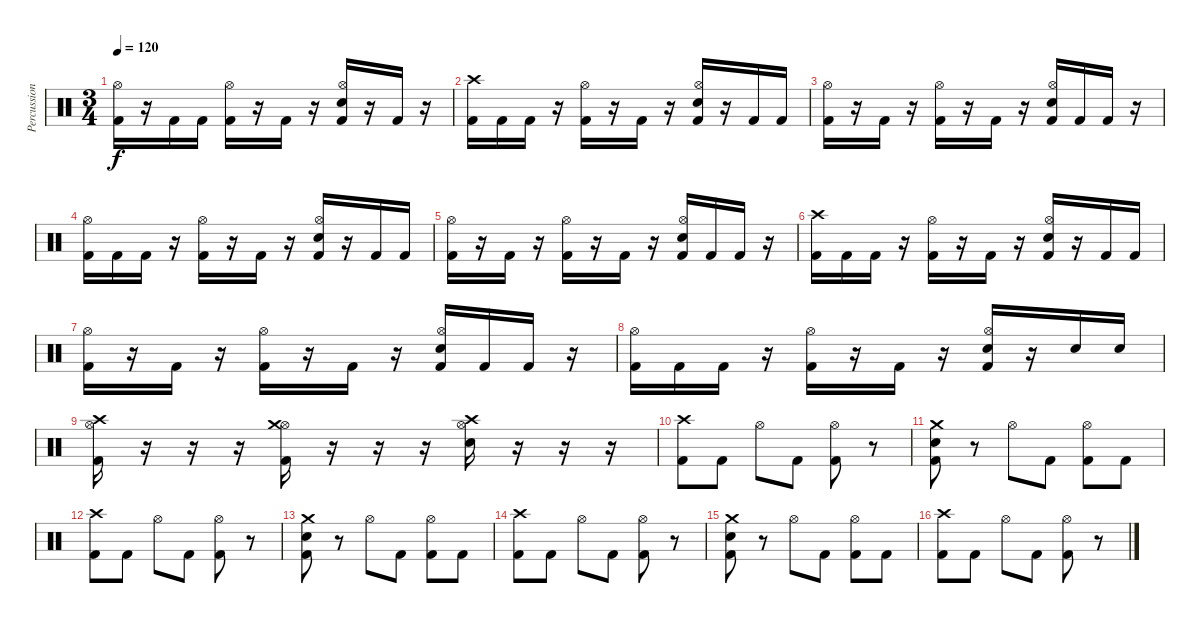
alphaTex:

\track ("Percussion" "Percussion") {instrument percussion}
\staff {score}
\articulation defaults
\ts (3 4)
\tempo 120
\clef neutral
\ks c
("Kick (hit) 2" "Hi-Hat (open)").16{dy f} r.16 "Kick (hit) 2".16 "Kick (hit) 2".16 ("Kick (hit) 2" "Hi-Hat (open)").16 r.16 "Kick (hit) 2".16 r.16 ("Kick (hit) 2" "Electric Snare (hit)" "Hi-Hat (open)").16 r.16 "Kick (hit) 2".16 r.16 |
("Kick (hit) 2" "Crash high (hit)").16 "Kick (hit) 2".16 "Kick (hit) 2".16 r.16 ("Kick (hit) 2" "Hi-Hat (open)").16 r.16 "Kick (hit) 2".16 r.16 ("Kick (hit) 2" "Electric Snare (hit)" "Hi-Hat (open)").16 r.16 "Kick (hit) 2".16 "Kick (hit) 2".16 |
("Kick (hit) 2" "Hi-Hat (open)").16 r.16 "Kick (hit) 2".16 r.16 ("Kick (hit) 2" "Hi-Hat (open)").16 r.16 "Kick (hit) 2".16 r.16 ("Kick (hit) 2" "Electric Snare (hit)" "Hi-Hat (open)").16 "Kick (hit) 2".16 "Kick (hit) 2".16 r.16 |
("Kick (hit) 2" "Hi-Hat (open)").16 "Kick (hit) 2".16 "Kick (hit) 2".16 r.16 ("Kick (hit) 2" "Hi-Hat (open)").16 r.16 "Kick (hit) 2".16 r.16 ("Kick (hit) 2" "Electric Snare (hit)" "Hi-Hat (open)").16 r.16 "Kick (hit) 2".16 "Kick (hit) 2".16 |
("Kick (hit) 2" "Hi-Hat (open)").16 r.16 "Kick (hit) 2".16 r.16 ("Kick (hit) 2" "Hi-Hat (open)").16 r.16 "Kick (hit) 2".16 r.16 ("Kick (hit) 2" "Electric Snare (hit)" "Hi-Hat (open)").16 "Kick (hit) 2".16 "Kick (hit) 2".16 r.16 |
("Kick (hit) 2" "Crash high (hit)").16 "Kick (hit) 2".16 "Kick (hit) 2".16 r.16 ("Kick (hit) 2" "Hi-Hat (open)").16 r.16 "Kick (hit) 2".16 r.16 ("Kick (hit) 2" "Electric Snare (hit)" "Hi-Hat (open)").16 r.16 "Kick (hit) 2".16 "Kick (hit) 2".16 |
("Kick (hit) 2" "Hi-Hat (open)").16 r.16 "Kick (hit) 2".16 r.16 ("Kick (hit) 2" "Hi-Hat (open)").16 r.16 "Kick (hit) 2".16 r.16 ("Kick (hit) 2" "Electric Snare (hit)" "Hi-Hat (open)").16 "Kick (hit) 2".16 "Kick (hit) 2".16 r.16 |
("Kick (hit) 2" "Hi-Hat (open)").16 "Kick (hit) 2".16 "Kick (hit) 2".16 r.16 ("Kick (hit) 2" "Hi-Hat (open)").16 r.16 "Kick (hit) 2".16 r.16 ("Kick (hit) 2" "Electric Snare (hit)" "Hi-Hat (open)").16 r.16 "Electric Snare (hit)".16 "Electric Snare (hit)".16 |
("Kick (hit) 2" "Hi-Hat (open)" "Crash high (hit)").16 r.16 r.16 r.16 ("Kick (hit) 2" "Hi-Hat (open)" "Crash medium (hit)").16 r.16 r.16 r.16 ("Electric Snare (hit)" "Hi-Hat (open)" "Crash high (hit)").16 r.16 r.16 r.16 |
("Kick (hit) 2" "Crash high (hit)").8 "Kick (hit) 2".8 "Hi-Hat (open)".8 "Kick (hit) 2".8 ("Kick (hit) 2" "Hi-Hat (open)").8 r.8 |
("Kick (hit) 2" "Electric Snare (hit)" "Crash medium (hit)").8 r.8 "Hi-Hat (open)".8 "Kick (hit) 2".8 ("Kick (hit) 2" "Hi-Hat (open)").8 "Kick (hit) 2".8 |
("Kick (hit) 2" "Crash high (hit)").8 "Kick (hit) 2".8 "Hi-Hat (open)".8 "Kick (hit) 2".8 ("Kick (hit) 2" "Hi-Hat (open)").8 r.8 |
("Kick (hit) 2" "Electric Snare (hit)" "Crash medium (hit)").8 r.8 "Hi-Hat (open)".8 "Kick (hit) 2".8 ("Kick (hit) 2" "Hi-Hat (open)").8 "Kick (hit) 2".8 |
("Kick (hit) 2" "Crash high (hit)").8 "Kick (hit) 2".8 "Hi-Hat (open)".8 "Kick (hit) 2".8 ("Kick (hit) 2" "Hi-Hat (open)").8 r.8 |
("Kick (hit) 2" "Electric Snare (hit)" "Crash medium (hit)").8 r.8 "Hi-Hat (open)".8 "Kick (hit) 2".8 ("Kick (hit) 2" "Hi-Hat (open)").8 "Kick (hit) 2".8 |
("Kick (hit) 2" "Crash high (hit)").8 "Kick (hit) 2".8 "Hi-Hat (open)".8 "Kick (hit) 2".8 ("Kick (hit) 2" "Hi-Hat (open)").8 r.8
